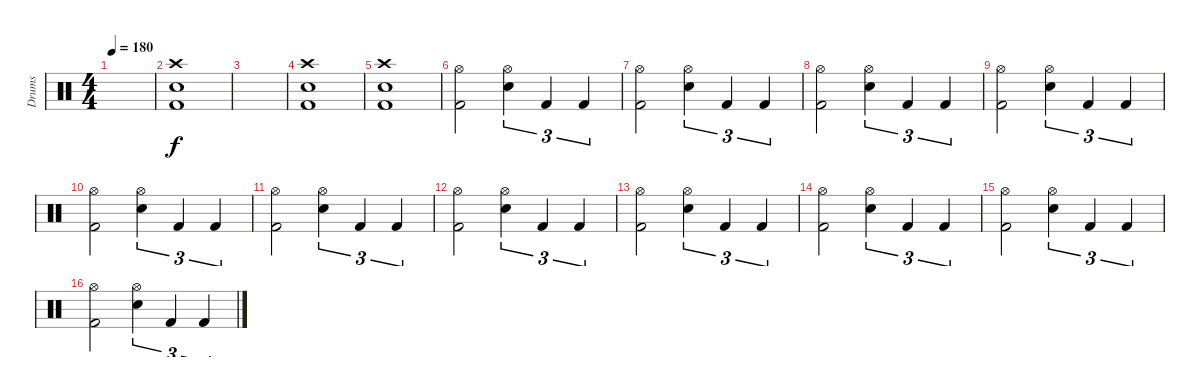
\track ("Drums" "Drums") {instrument percussion}
\staff {score}
\articulation defaults
\ts (4 4)
\tempo 180
\clef neutral
\ks c
|
("Crash high (hit)" "Snare (hit) 2" "Kick (hit) 2").1 |
|
("Crash high (hit)" "Snare (hit) 2" "Kick (hit) 2").1 |
("Crash high (hit)" "Snare (hit) 2" "Kick (hit) 2").1 |
("Hi-Hat (open)" "Kick (hit) 2").2 ("Hi-Hat (open)" "Snare (hit) 2").4{tu (3 2)} "Kick (hit) 2".4{tu (3 2)} "Kick (hit) 2".4{tu (3 2)} |
("Hi-Hat (open)" "Kick (hit) 2").2 ("Hi-Hat (open)" "Snare (hit) 2").4{tu (3 2)} "Kick (hit) 2".4{tu (3 2)} "Kick (hit) 2".4{tu (3 2)} |
("Hi-Hat (open)" "Kick (hit) 2").2 ("Hi-Hat (open)" "Snare (hit) 2").4{tu (3 2)} "Kick (hit) 2".4{tu (3 2)} "Kick (hit) 2".4{tu (3 2)} |
("Hi-Hat (open)" "Kick (hit) 2").2 ("Hi-Hat (open)" "Snare (hit) 2").4{tu (3 2)} "Kick (hit) 2".4{tu (3 2)} "Kick (hit) 2".4{tu (3 2)} |
("Hi-Hat (open)" "Kick (hit) 2").2 ("Hi-Hat (open)" "Snare (hit) 2").4{tu (3 2)} "Kick (hit) 2".4{tu (3 2)} "Kick (hit) 2".4{tu (3 2)} |
("Hi-Hat (open)" "Kick (hit) 2").2 ("Hi-Hat (open)" "Snare (hit) 2").4{tu (3 2)} "Kick (hit) 2".4{tu (3 2)} "Kick (hit) 2".4{tu (3 2)} |
("Hi-Hat (open)" "Kick (hit) 2").2 ("Hi-Hat (open)" "Snare (hit) 2").4{tu (3 2)} "Kick (hit) 2".4{tu (3 2)} "Kick (hit) 2".4{tu (3 2)} |
("Hi-Hat (open)" "Kick (hit) 2").2 ("Hi-Hat (open)" "Snare (hit) 2").4{tu (3 2)} "Kick (hit) 2".4{tu (3 2)} "Kick (hit) 2".4{tu (3 2)} |
("Hi-Hat (open)" "Kick (hit) 2").2 ("Hi-Hat (open)" "Snare (hit) 2").4{tu (3 2)} "Kick (hit) 2".4{tu (3 2)} "Kick (hit) 2".4{tu (3 2)} |
("Hi-Hat (open)" "Kick (hit) 2").2 ("Hi-Hat (open)" "Snare (hit) 2").4{tu (3 2)} "Kick (hit) 2".4{tu (3 2)} "Kick (hit) 2".4{tu (3 2)} |
("Hi-Hat (open)" "Kick (hit) 2").2 ("Hi-Hat (open)" "Snare (hit) 2").4{tu (3 2)} "Kick (hit) 2".4{tu (3 2)} "Kick (hit) 2".4{tu (3 2)}
